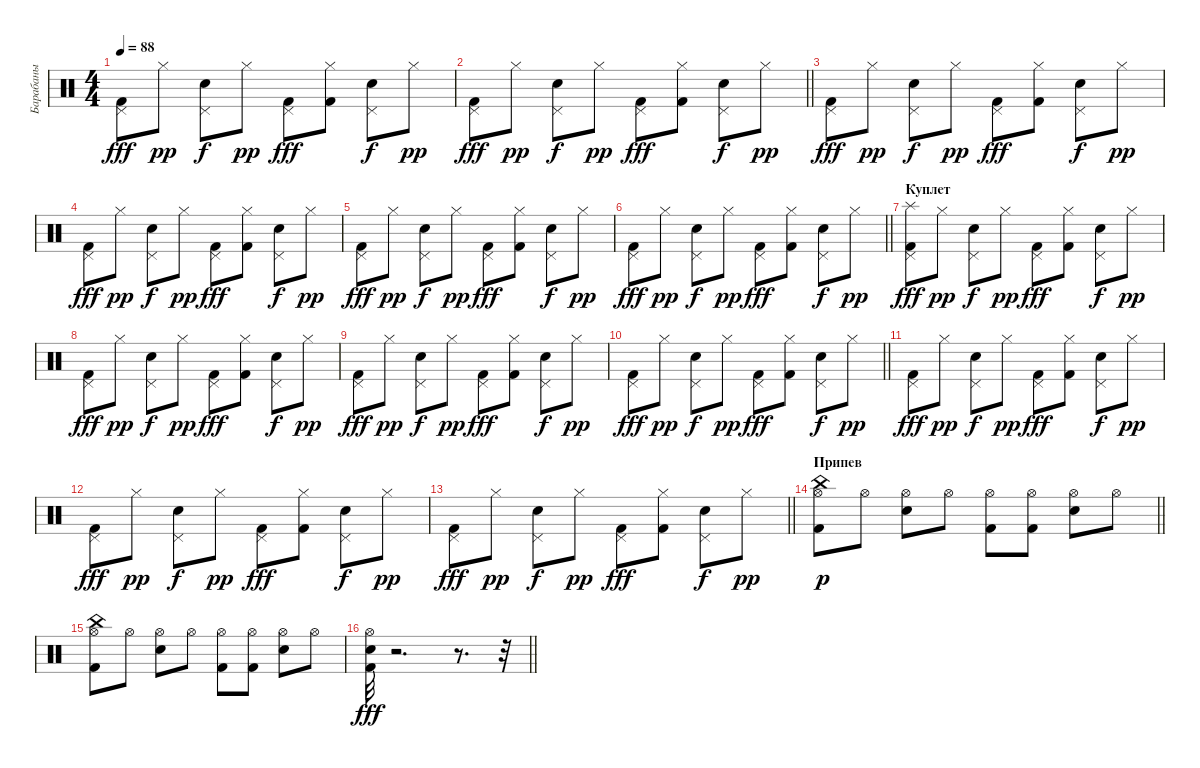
\track ("Барабаны" "Барабаны") {instrument percussion}
\staff {score}
\articulation defaults
\ts (4 4)
\tempo 88
\clef neutral
\ks c
("Pedal Hi-Hat (hit)" "Kick (hit) 2").8{dy fff} "Hi-Hat (closed)".8{dy pp} ("Pedal Hi-Hat (hit)" "Electric Snare (hit)").8{dy f} "Hi-Hat (closed)".8{dy pp} ("Pedal Hi-Hat (hit)" "Kick (hit) 2").8{dy fff} ("Hi-Hat (closed)" "Kick (hit) 2").8 ("Pedal Hi-Hat (hit)" "Electric Snare (hit)").8{dy f} "Hi-Hat (closed)".8{dy pp} |
\barLineRight lightlight
("Pedal Hi-Hat (hit)" "Kick (hit) 2").8{dy fff} "Hi-Hat (closed)".8{dy pp} ("Pedal Hi-Hat (hit)" "Electric Snare (hit)").8{dy f} "Hi-Hat (closed)".8{dy pp} ("Pedal Hi-Hat (hit)" "Kick (hit) 2").8{dy fff} ("Hi-Hat (closed)" "Kick (hit) 2").8 ("Pedal Hi-Hat (hit)" "Electric Snare (hit)").8{dy f} "Hi-Hat (closed)".8{dy pp} |
("Pedal Hi-Hat (hit)" "Kick (hit) 2").8{dy fff} "Hi-Hat (closed)".8{dy pp} ("Pedal Hi-Hat (hit)" "Electric Snare (hit)").8{dy f} "Hi-Hat (closed)".8{dy pp} ("Pedal Hi-Hat (hit)" "Kick (hit) 2").8{dy fff} ("Hi-Hat (closed)" "Kick (hit) 2").8 ("Pedal Hi-Hat (hit)" "Electric Snare (hit)").8{dy f} "Hi-Hat (closed)".8{dy pp} |
("Pedal Hi-Hat (hit)" "Kick (hit) 2").8{dy fff} "Hi-Hat (closed)".8{dy pp} ("Pedal Hi-Hat (hit)" "Electric Snare (hit)").8{dy f} "Hi-Hat (closed)".8{dy pp} ("Pedal Hi-Hat (hit)" "Kick (hit) 2").8{dy fff} ("Hi-Hat (closed)" "Kick (hit) 2").8 ("Pedal Hi-Hat (hit)" "Electric Snare (hit)").8{dy f} "Hi-Hat (closed)".8{dy pp} |
("Pedal Hi-Hat (hit)" "Kick (hit) 2").8{dy fff} "Hi-Hat (closed)".8{dy pp} ("Pedal Hi-Hat (hit)" "Electric Snare (hit)").8{dy f} "Hi-Hat (closed)".8{dy pp} ("Pedal Hi-Hat (hit)" "Kick (hit) 2").8{dy fff} ("Hi-Hat (closed)" "Kick (hit) 2").8 ("Pedal Hi-Hat (hit)" "Electric Snare (hit)").8{dy f} "Hi-Hat (closed)".8{dy pp} |
\barLineRight lightlight
("Pedal Hi-Hat (hit)" "Kick (hit) 2").8{dy fff} "Hi-Hat (closed)".8{dy pp} ("Pedal Hi-Hat (hit)" "Electric Snare (hit)").8{dy f} "Hi-Hat (closed)".8{dy pp} ("Pedal Hi-Hat (hit)" "Kick (hit) 2").8{dy fff} ("Hi-Hat (closed)" "Kick (hit) 2").8 ("Pedal Hi-Hat (hit)" "Electric Snare (hit)").8{dy f} "Hi-Hat (closed)".8{dy pp} |
\section ("" "Куплет")
("Splash (hit)" "Pedal Hi-Hat (hit)" "Kick (hit) 2").8{dy fff} "Hi-Hat (closed)".8{dy pp} ("Pedal Hi-Hat (hit)" "Electric Snare (hit)").8{dy f} "Hi-Hat (closed)".8{dy pp} ("Pedal Hi-Hat (hit)" "Kick (hit) 2").8{dy fff} ("Hi-Hat (closed)" "Kick (hit) 2").8 ("Pedal Hi-Hat (hit)" "Electric Snare (hit)").8{dy f} "Hi-Hat (closed)".8{dy pp} |
("Pedal Hi-Hat (hit)" "Kick (hit) 2").8{dy fff} "Hi-Hat (closed)".8{dy pp} ("Pedal Hi-Hat (hit)" "Electric Snare (hit)").8{dy f} "Hi-Hat (closed)".8{dy pp} ("Pedal Hi-Hat (hit)" "Kick (hit) 2").8{dy fff} ("Hi-Hat (closed)" "Kick (hit) 2").8 ("Pedal Hi-Hat (hit)" "Electric Snare (hit)").8{dy f} "Hi-Hat (closed)".8{dy pp} |
("Pedal Hi-Hat (hit)" "Kick (hit) 2").8{dy fff} "Hi-Hat (closed)".8{dy pp} ("Pedal Hi-Hat (hit)" "Electric Snare (hit)").8{dy f} "Hi-Hat (closed)".8{dy pp} ("Pedal Hi-Hat (hit)" "Kick (hit) 2").8{dy fff} ("Hi-Hat (closed)" "Kick (hit) 2").8 ("Pedal Hi-Hat (hit)" "Electric Snare (hit)").8{dy f} "Hi-Hat (closed)".8{dy pp} |
\barLineRight lightlight
("Pedal Hi-Hat (hit)" "Kick (hit) 2").8{dy fff} "Hi-Hat (closed)".8{dy pp} ("Pedal Hi-Hat (hit)" "Electric Snare (hit)").8{dy f} "Hi-Hat (closed)".8{dy pp} ("Pedal Hi-Hat (hit)" "Kick (hit) 2").8{dy fff} ("Hi-Hat (closed)" "Kick (hit) 2").8 ("Pedal Hi-Hat (hit)" "Electric Snare (hit)").8{dy f} "Hi-Hat (closed)".8{dy pp} |
("Pedal Hi-Hat (hit)" "Kick (hit) 2").8{dy fff} "Hi-Hat (closed)".8{dy pp} ("Pedal Hi-Hat (hit)" "Electric Snare (hit)").8{dy f} "Hi-Hat (closed)".8{dy pp} ("Pedal Hi-Hat (hit)" "Kick (hit) 2").8{dy fff} ("Hi-Hat (closed)" "Kick (hit) 2").8 ("Pedal Hi-Hat (hit)" "Electric Snare (hit)").8{dy f} "Hi-Hat (closed)".8{dy pp} |
("Pedal Hi-Hat (hit)" "Kick (hit) 2").8{dy fff} "Hi-Hat (closed)".8{dy pp} ("Pedal Hi-Hat (hit)" "Electric Snare (hit)").8{dy f} "Hi-Hat (closed)".8{dy pp} ("Pedal Hi-Hat (hit)" "Kick (hit) 2").8{dy fff} ("Hi-Hat (closed)" "Kick (hit) 2").8 ("Pedal Hi-Hat (hit)" "Electric Snare (hit)").8{dy f} "Hi-Hat (closed)".8{dy pp} |
\barLineRight lightlight
("Pedal Hi-Hat (hit)" "Kick (hit) 2").8{dy fff} "Hi-Hat (closed)".8{dy pp} ("Pedal Hi-Hat (hit)" "Electric Snare (hit)").8{dy f} "Hi-Hat (closed)".8{dy pp} ("Pedal Hi-Hat (hit)" "Kick (hit) 2").8{dy fff} ("Hi-Hat (closed)" "Kick (hit) 2").8 ("Pedal Hi-Hat (hit)" "Electric Snare (hit)").8{dy f} "Hi-Hat (closed)".8{dy pp} |
\section ("" "Припев")
\barLineRight lightlight
("China (hit)" "Kick (hit) 2" "Hi-Hat (open)").8{dy p} "Hi-Hat (open)".8 ("Electric Snare (hit)" "Hi-Hat (open)").8 "Hi-Hat (open)".8 ("Kick (hit) 2" "Hi-Hat (open)").8 ("Kick (hit) 2" "Hi-Hat (open)").8 ("Electric Snare (hit)" "Hi-Hat (open)").8 "Hi-Hat (open)".8 |
("China (hit)" "Kick (hit) 2" "Hi-Hat (open)").8 "Hi-Hat (open)".8 ("Electric Snare (hit)" "Hi-Hat (open)").8 "Hi-Hat (open)".8 ("Kick (hit) 2" "Hi-Hat (open)").8 ("Kick (hit) 2" "Hi-Hat (open)").8 ("Electric Snare (hit)" "Hi-Hat (open)").8 "Hi-Hat (open)".8 |
\barLineRight lightlight
("Electric Snare (hit)" "Kick (hit) 2" "Hi-Hat (open)").32{dy fff} r.2{d} r.8{d} r.32
